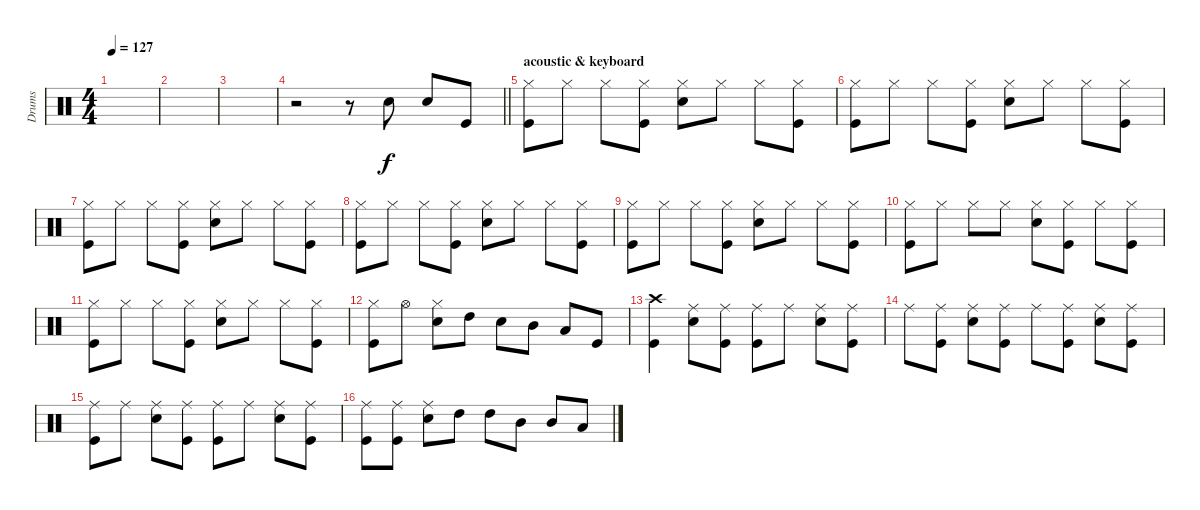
\track ("Drums" "Drums") {instrument percussion}
\staff {score}
\articulation defaults
\ts (4 4)
\tempo 127
\clef neutral
\ks c
|
|
|
\barLineRight lightlight
r.2{volume 13} r.8 "Snare (hit) 2".8 "Snare (hit) 2".8 "Kick (hit)".8 |
\section ("" "acoustic & keyboard")
("Hi-Hat (closed)" "Kick (hit)").8 "Hi-Hat (closed)".8 "Hi-Hat (closed)".8 ("Hi-Hat (closed)" "Kick (hit)").8 ("Hi-Hat (closed)" "Snare (hit) 2").8 "Hi-Hat (closed)".8 "Hi-Hat (closed)".8 ("Hi-Hat (closed)" "Kick (hit)").8 |
("Hi-Hat (closed)" "Kick (hit)").8 "Hi-Hat (closed)".8 "Hi-Hat (closed)".8 ("Hi-Hat (closed)" "Kick (hit)").8 ("Hi-Hat (closed)" "Snare (hit) 2").8 "Hi-Hat (closed)".8 "Hi-Hat (closed)".8 ("Hi-Hat (closed)" "Kick (hit)").8 |
("Hi-Hat (closed)" "Kick (hit)").8 "Hi-Hat (closed)".8 "Hi-Hat (closed)".8 ("Hi-Hat (closed)" "Kick (hit)").8 ("Hi-Hat (closed)" "Snare (hit) 2").8 "Hi-Hat (closed)".8 "Hi-Hat (closed)".8 ("Hi-Hat (closed)" "Kick (hit)").8 |
("Hi-Hat (closed)" "Kick (hit)").8 "Hi-Hat (closed)".8 "Hi-Hat (closed)".8 ("Hi-Hat (closed)" "Kick (hit)").8 ("Hi-Hat (closed)" "Snare (hit) 2").8 "Hi-Hat (closed)".8 "Hi-Hat (closed)".8 ("Hi-Hat (closed)" "Kick (hit)").8 |
("Hi-Hat (closed)" "Kick (hit)").8 "Hi-Hat (closed)".8 "Hi-Hat (closed)".8 ("Hi-Hat (closed)" "Kick (hit)").8 ("Hi-Hat (closed)" "Snare (hit) 2").8 "Hi-Hat (closed)".8 "Hi-Hat (closed)".8 ("Hi-Hat (closed)" "Kick (hit)").8 |
("Hi-Hat (closed)" "Kick (hit)").8 "Hi-Hat (closed)".8 "Hi-Hat (closed)".8 "Hi-Hat (closed)".8 ("Hi-Hat (closed)" "Snare (hit) 2").8 ("Hi-Hat (closed)" "Kick (hit)").8 "Hi-Hat (closed)".8 ("Hi-Hat (closed)" "Kick (hit)").8 |
("Hi-Hat (closed)" "Kick (hit)").8 "Hi-Hat (closed)".8 "Hi-Hat (closed)".8 ("Hi-Hat (closed)" "Kick (hit)").8 ("Hi-Hat (closed)" "Snare (hit) 2").8 "Hi-Hat (closed)".8 "Hi-Hat (closed)".8 ("Hi-Hat (closed)" "Kick (hit)").8 |
("Hi-Hat (closed)" "Kick (hit)").8 "Hi-Hat (open)".8 ("Hi-Hat (closed)" "Snare (hit) 2").8 "High Tom (hit)".8 "Snare (hit) 2".8 "Mid Tom (hit)".8 "Low Tom (hit)".8 "Kick (hit)".8 |
("Crash high (hit)" "Kick (hit)").4 ("Snare (hit) 2" "Ride (middle)").8 ("Kick (hit)" "Ride (middle)").8 ("Kick (hit)" "Ride (middle)").8 "Ride (middle)".8 ("Snare (hit) 2" "Ride (middle)").8 ("Kick (hit)" "Ride (middle)").8 |
"Ride (middle)".8 ("Ride (middle)" "Kick (hit)").8 ("Ride (middle)" "Snare (hit) 2").8 ("Ride (middle)" "Kick (hit)").8 "Ride (middle)".8 ("Ride (middle)" "Kick (hit)").8 ("Ride (middle)" "Snare (hit) 2").8 ("Ride (middle)" "Kick (hit)").8 |
("Ride (middle)" "Kick (hit)").8 "Ride (middle)".8 ("Ride (middle)" "Snare (hit) 2").8 ("Ride (middle)" "Kick (hit)").8 ("Ride (middle)" "Kick (hit)").8 "Ride (middle)".8 ("Ride (middle)" "Snare (hit) 2").8 ("Ride (middle)" "Kick (hit)").8 |
("Ride (middle)" "Kick (hit)").8 ("Ride (middle)" "Kick (hit)").8 ("Ride (middle)" "Snare (hit) 2").8 "High Tom (hit)".8 "High Tom (hit)".8 "Mid Tom (hit)".8 "Mid Tom (hit)".8 "Low Tom (hit)".8
